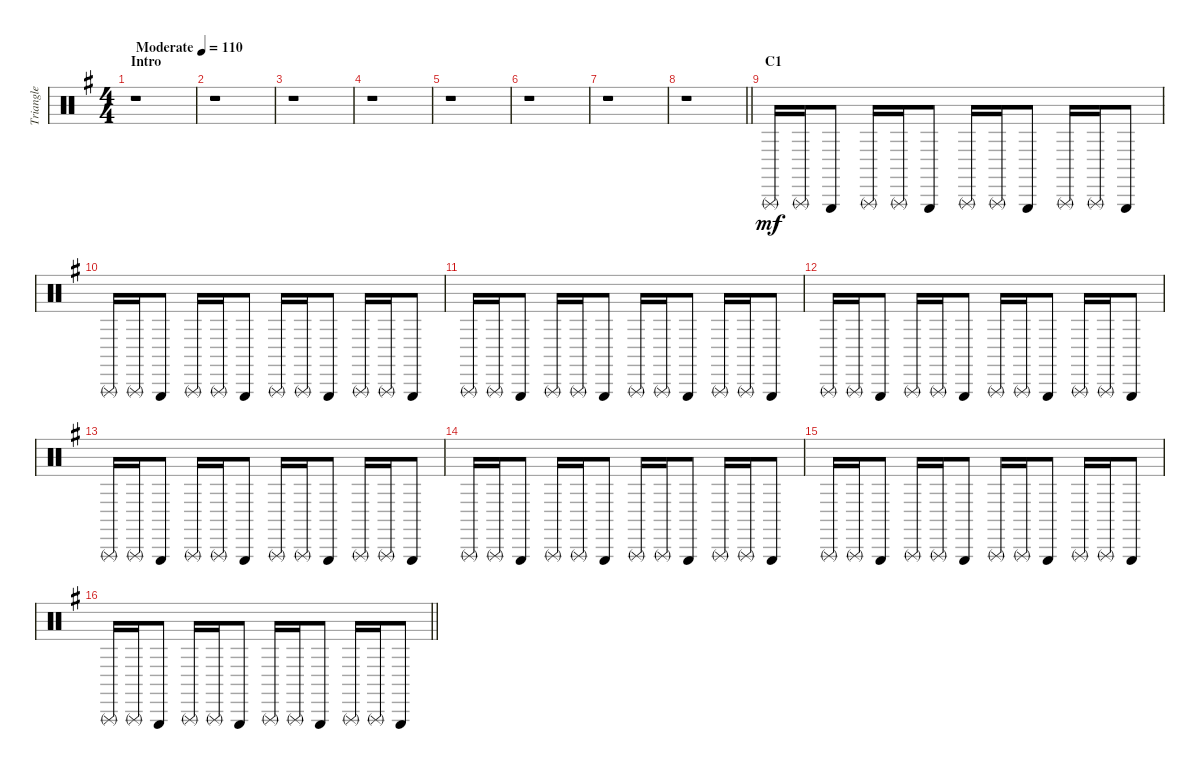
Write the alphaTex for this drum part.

\track ("Triangle" "Triangle") {instrument percussion}
\staff {score}
\articulation defaults
\ts (4 4)
\section ("" "Intro")
\tempo (110 "Moderate")
\clef neutral
\ks g
r.1{dy mf} |
r.1 |
r.1 |
r.1 |
r.1 |
r.1 |
r.1 |
\barLineRight lightlight
r.1 |
\section ("" "C1")
"Triangle (rnute)".16 "Triangle (rnute)".16 "Triangle (hit)".8 "Triangle (rnute)".16 "Triangle (rnute)".16 "Triangle (hit)".8 "Triangle (rnute)".16 "Triangle (rnute)".16 "Triangle (hit)".8 "Triangle (rnute)".16 "Triangle (rnute)".16 "Triangle (hit)".8 |
"Triangle (rnute)".16 "Triangle (rnute)".16 "Triangle (hit)".8 "Triangle (rnute)".16 "Triangle (rnute)".16 "Triangle (hit)".8 "Triangle (rnute)".16 "Triangle (rnute)".16 "Triangle (hit)".8 "Triangle (rnute)".16 "Triangle (rnute)".16 "Triangle (hit)".8 |
"Triangle (rnute)".16 "Triangle (rnute)".16 "Triangle (hit)".8 "Triangle (rnute)".16 "Triangle (rnute)".16 "Triangle (hit)".8 "Triangle (rnute)".16 "Triangle (rnute)".16 "Triangle (hit)".8 "Triangle (rnute)".16 "Triangle (rnute)".16 "Triangle (hit)".8 |
"Triangle (rnute)".16 "Triangle (rnute)".16 "Triangle (hit)".8 "Triangle (rnute)".16 "Triangle (rnute)".16 "Triangle (hit)".8 "Triangle (rnute)".16 "Triangle (rnute)".16 "Triangle (hit)".8 "Triangle (rnute)".16 "Triangle (rnute)".16 "Triangle (hit)".8 |
"Triangle (rnute)".16 "Triangle (rnute)".16 "Triangle (hit)".8 "Triangle (rnute)".16 "Triangle (rnute)".16 "Triangle (hit)".8 "Triangle (rnute)".16 "Triangle (rnute)".16 "Triangle (hit)".8 "Triangle (rnute)".16 "Triangle (rnute)".16 "Triangle (hit)".8 |
"Triangle (rnute)".16 "Triangle (rnute)".16 "Triangle (hit)".8 "Triangle (rnute)".16 "Triangle (rnute)".16 "Triangle (hit)".8 "Triangle (rnute)".16 "Triangle (rnute)".16 "Triangle (hit)".8 "Triangle (rnute)".16 "Triangle (rnute)".16 "Triangle (hit)".8 |
"Triangle (rnute)".16 "Triangle (rnute)".16 "Triangle (hit)".8 "Triangle (rnute)".16 "Triangle (rnute)".16 "Triangle (hit)".8 "Triangle (rnute)".16 "Triangle (rnute)".16 "Triangle (hit)".8 "Triangle (rnute)".16 "Triangle (rnute)".16 "Triangle (hit)".8 |
\barLineRight lightlight "Triangle (rnute)".16 "Triangle (rnute)".16 "Triangle (hit)".8 "Triangle (rnute)".16 "Triangle (rnute)".16 "Triangle (hit)".8 "Triangle (rnute)".16 "Triangle (rnute)".16 "Triangle (hit)".8 "Triangle (rnute)".16 "Triangle (rnute)".16 "Triangle (hit)".8
